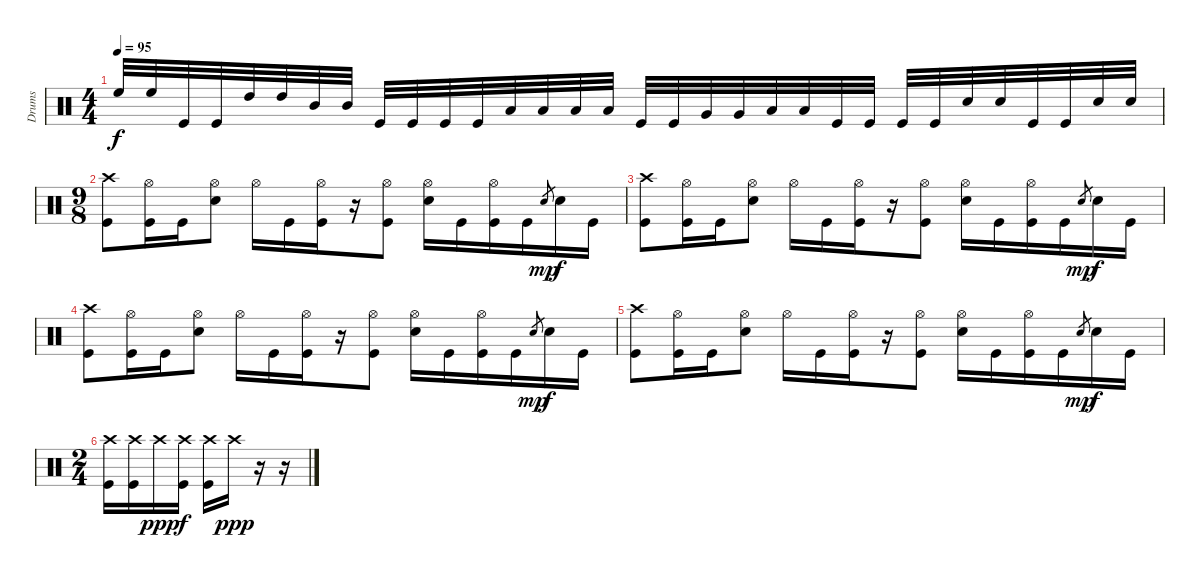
\track ("Drums" "Drums") {instrument percussion}
\staff {score}
\articulation defaults
\ts (4 4)
\tempo 95
\clef neutral
\ks c "High Floor Tom (hit)".32{dy f} "High Floor Tom (hit)".32 "Kick (hit)".32 "Kick (hit)".32 "High Tom (hit)".32 "High Tom (hit)".32 "Mid Tom (hit)".32 "Mid Tom (hit)".32 "Kick (hit)".32 "Kick (hit)".32 "Kick (hit)".32 "Kick (hit)".32 "Low Tom (hit)".32 "Low Tom (hit)".32 "Low Tom (hit)".32 "Low Tom (hit)".32 "Kick (hit)".32 "Kick (hit)".32 "Very Low Tom (hit)".32 "Very Low Tom (hit)".32 "Low Floor Tom (hit)".32 "Low Floor Tom (hit)".32 "Kick (hit)".32 "Kick (hit)".32 "Kick (hit)".32 "Kick (hit)".32 "Electric Snare (hit)".32 "Electric Snare (hit)".32 "Kick (hit)".32 "Kick (hit)".32 "Electric Snare (hit)".32 "Electric Snare (hit)".32
|
\ts (9 8)
("Crash high (hit)" "Kick (hit)").8 ("Hi-Hat (open)" "Kick (hit)").16 "Kick (hit)".16 ("Hi-Hat (open)" "Electric Snare (hit)").8 "Hi-Hat (open)".16 "Kick (hit)".16 ("Hi-Hat (open)" "Kick (hit)").16 r.16 ("Hi-Hat (open)" "Kick (hit)").8 ("Hi-Hat (open)" "Electric Snare (hit)").16 "Kick (hit)".16 ("Hi-Hat (open)" "Kick (hit)").16 "Kick (hit)".16 "Electric Snare (hit)".8{gr dy mp} "Electric Snare (hit)".16{dy f} "Kick (hit)".16 |
("Crash high (hit)" "Kick (hit)").8 ("Hi-Hat (open)" "Kick (hit)").16 "Kick (hit)".16 ("Hi-Hat (open)" "Electric Snare (hit)").8 "Hi-Hat (open)".16 "Kick (hit)".16 ("Hi-Hat (open)" "Kick (hit)").16 r.16 ("Hi-Hat (open)" "Kick (hit)").8 ("Hi-Hat (open)" "Electric Snare (hit)").16 "Kick (hit)".16 ("Hi-Hat (open)" "Kick (hit)").16 "Kick (hit)".16 "Electric Snare (hit)".8{gr dy mp} "Electric Snare (hit)".16{dy f} "Kick (hit)".16 |
("Crash high (hit)" "Kick (hit)").8 ("Hi-Hat (open)" "Kick (hit)").16 "Kick (hit)".16 ("Hi-Hat (open)" "Electric Snare (hit)").8 "Hi-Hat (open)".16 "Kick (hit)".16 ("Hi-Hat (open)" "Kick (hit)").16 r.16 ("Hi-Hat (open)" "Kick (hit)").8 ("Hi-Hat (open)" "Electric Snare (hit)").16 "Kick (hit)".16 ("Hi-Hat (open)" "Kick (hit)").16 "Kick (hit)".16 "Electric Snare (hit)".8{gr dy mp} "Electric Snare (hit)".16{dy f} "Kick (hit)".16 |
("Crash high (hit)" "Kick (hit)").8 ("Hi-Hat (open)" "Kick (hit)").16 "Kick (hit)".16 ("Hi-Hat (open)" "Electric Snare (hit)").8 "Hi-Hat (open)".16 "Kick (hit)".16 ("Hi-Hat (open)" "Kick (hit)").16 r.16 ("Hi-Hat (open)" "Kick (hit)").8 ("Hi-Hat (open)" "Electric Snare (hit)").16 "Kick (hit)".16 ("Hi-Hat (open)" "Kick (hit)").16 "Kick (hit)".16 "Electric Snare (hit)".8{gr dy mp} "Electric Snare (hit)".16{dy f} "Kick (hit)".16 |
\ts (2 4)
("Crash high (hit)" "Kick (hit)").16 ("Crash high (hit)" "Kick (hit)").16 "Crash high (hit)".16{dy ppp} ("Crash high (hit)" "Kick (hit)").16{dy f} ("Crash high (hit)" "Kick (hit)").16 "Crash high (hit)".16{dy ppp} r.16 r.16
